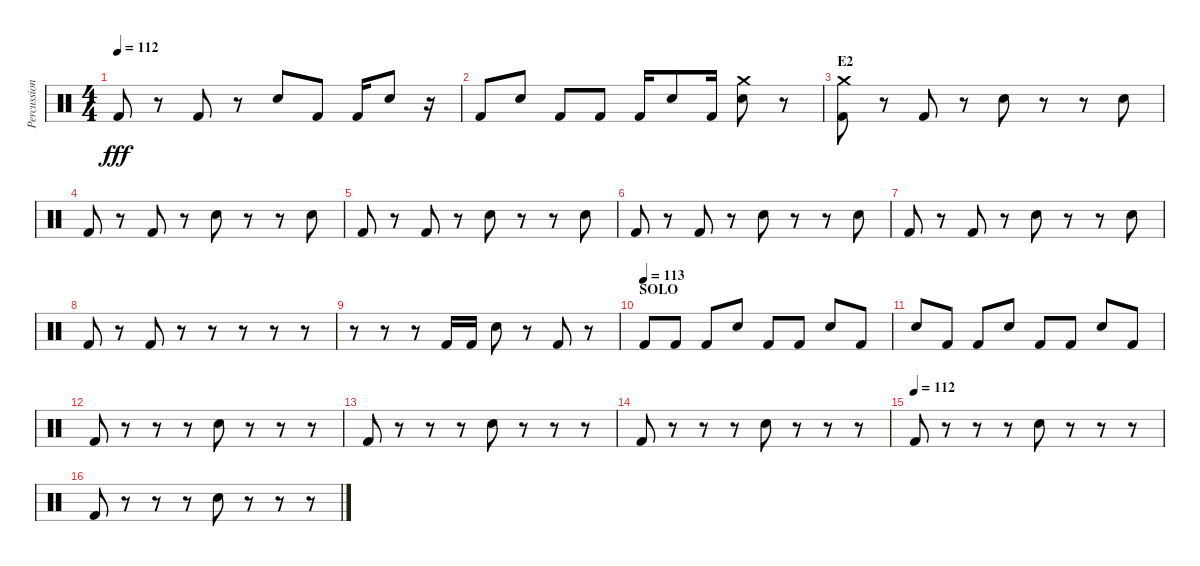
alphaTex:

\track ("Percussion" "Percussion") {instrument percussion}
\staff {score}
\articulation defaults
\ts (4 4)
\tempo 112
\clef neutral
\ks c "Kick (hit) 2".8{dy fff}
r.8 "Kick (hit) 2".8 r.8 "Electric Snare (hit)".8 "Kick (hit) 2".8 "Kick (hit) 2".16 "Electric Snare (hit)".8 r.16 |
"Kick (hit) 2".8 "Electric Snare (hit)".8 "Kick (hit) 2".8 "Kick (hit) 2".8 "Kick (hit) 2".16 "Electric Snare (hit)".8 "Kick (hit) 2".16 ("Electric Snare (hit)" "Crash medium (hit)").8 r.8 |
\section ("" "E2")
("Kick (hit) 2" "Crash medium (hit)").8 r.8 "Kick (hit) 2".8 r.8 "Electric Snare (hit)".8 r.8 r.8 "Electric Snare (hit)".8 |
"Kick (hit) 2".8 r.8 "Kick (hit) 2".8 r.8 "Electric Snare (hit)".8 r.8 r.8 "Electric Snare (hit)".8 |
"Kick (hit) 2".8 r.8 "Kick (hit) 2".8 r.8 "Electric Snare (hit)".8 r.8 r.8 "Electric Snare (hit)".8 |
"Kick (hit) 2".8 r.8 "Kick (hit) 2".8 r.8 "Electric Snare (hit)".8 r.8 r.8 "Electric Snare (hit)".8 |
"Kick (hit) 2".8 r.8 "Kick (hit) 2".8 r.8 "Electric Snare (hit)".8 r.8 r.8 "Electric Snare (hit)".8 |
"Kick (hit) 2".8 r.8 "Kick (hit) 2".8 r.8 r.8 r.8 r.8 r.8 |
r.8 r.8 r.8 "Kick (hit) 2".16 "Kick (hit) 2".16 "Electric Snare (hit)".8 r.8 "Kick (hit) 2".8 r.8 |
\section ("" "SOLO")
\tempo (113)
"Kick (hit) 2".8 "Kick (hit) 2".8 "Kick (hit) 2".8 "Electric Snare (hit)".8 "Kick (hit) 2".8 "Kick (hit) 2".8 "Electric Snare (hit)".8 "Kick (hit) 2".8 |
"Electric Snare (hit)".8 "Kick (hit) 2".8 "Kick (hit) 2".8 "Electric Snare (hit)".8 "Kick (hit) 2".8 "Kick (hit) 2".8 "Electric Snare (hit)".8 "Kick (hit) 2".8 |
"Kick (hit) 2".8 r.8 r.8 r.8 "Electric Snare (hit)".8 r.8 r.8 r.8 |
"Kick (hit) 2".8 r.8 r.8 r.8 "Electric Snare (hit)".8 r.8 r.8 r.8 |
"Kick (hit) 2".8 r.8 r.8 r.8 "Electric Snare (hit)".8 r.8 r.8 r.8 |
\tempo (112)
"Kick (hit) 2".8 r.8 r.8 r.8 "Electric Snare (hit)".8 r.8 r.8 r.8 |
"Kick (hit) 2".8 r.8 r.8 r.8 "Electric Snare (hit)".8 r.8 r.8 r.8
